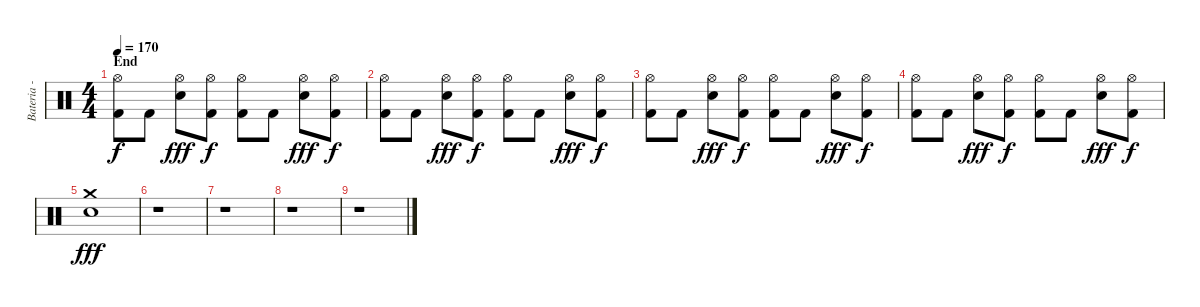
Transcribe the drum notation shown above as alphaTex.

\track ("Bateria - Larzon" "Bateria - ") {instrument percussion}
\staff {score}
\articulation defaults
\ts (4 4)
\section ("" "End")
\tempo 170
\clef neutral
\ks c
("Kick (hit) 2" "Hi-Hat (open)").8{dy f} "Kick (hit) 2".8 ("Hi-Hat (open)" "Snare (hit) 2").8{dy fff} ("Kick (hit) 2" "Hi-Hat (open)").8{dy f} ("Kick (hit) 2" "Hi-Hat (open)").8 "Kick (hit) 2".8 ("Hi-Hat (open)" "Snare (hit) 2").8{dy fff} ("Kick (hit) 2" "Hi-Hat (open)").8{dy f} |
("Kick (hit) 2" "Hi-Hat (open)").8 "Kick (hit) 2".8 ("Hi-Hat (open)" "Snare (hit) 2").8{dy fff} ("Kick (hit) 2" "Hi-Hat (open)").8{dy f} ("Kick (hit) 2" "Hi-Hat (open)").8 "Kick (hit) 2".8 ("Hi-Hat (open)" "Snare (hit) 2").8{dy fff} ("Kick (hit) 2" "Hi-Hat (open)").8{dy f} |
("Kick (hit) 2" "Hi-Hat (open)").8 "Kick (hit) 2".8 ("Hi-Hat (open)" "Snare (hit) 2").8{dy fff} ("Kick (hit) 2" "Hi-Hat (open)").8{dy f} ("Kick (hit) 2" "Hi-Hat (open)").8 "Kick (hit) 2".8 ("Hi-Hat (open)" "Snare (hit) 2").8{dy fff} ("Kick (hit) 2" "Hi-Hat (open)").8{dy f} |
("Kick (hit) 2" "Hi-Hat (open)").8 "Kick (hit) 2".8 ("Hi-Hat (open)" "Snare (hit) 2").8{dy fff} ("Kick (hit) 2" "Hi-Hat (open)").8{dy f} ("Kick (hit) 2" "Hi-Hat (open)").8 "Kick (hit) 2".8 ("Hi-Hat (open)" "Snare (hit) 2").8{dy fff} ("Kick (hit) 2" "Hi-Hat (open)").8{dy f} |
("Crash medium (hit)" "Snare (hit) 2").1{dy fff} |
r.1 |
r.1 |
r.1 |
r.1
